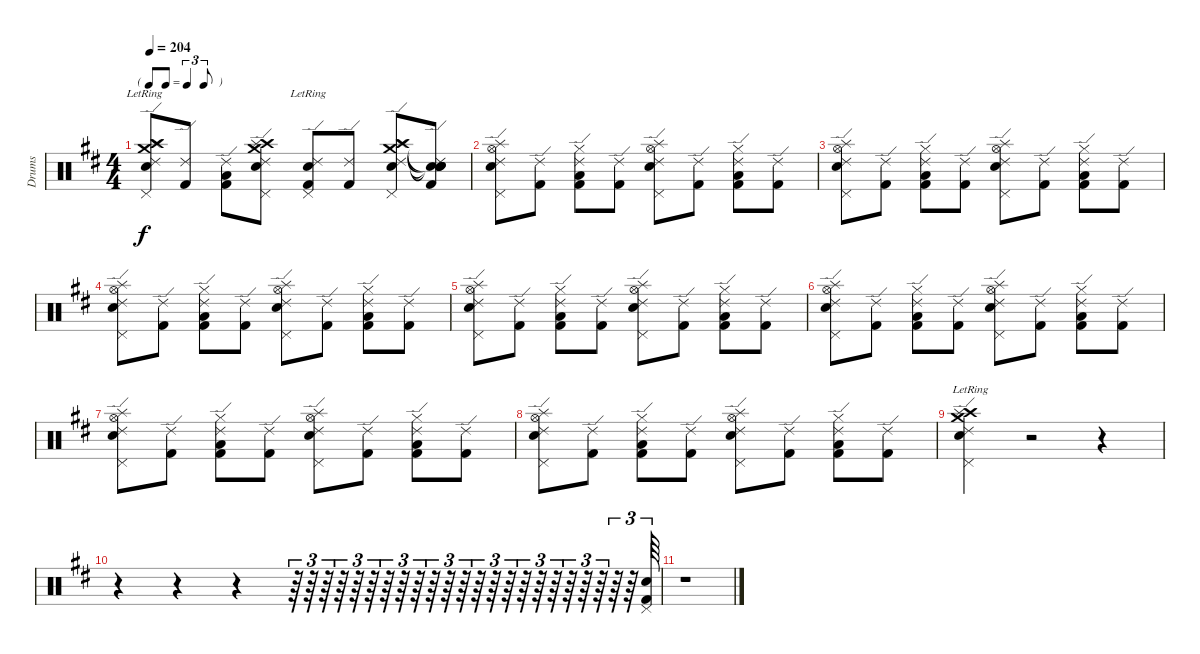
\track ("Drums" "Drums") {instrument percussion}
\staff {score}
\articulation defaults
\ts (4 4)
\tf triplet8th
\tempo 204
\clef neutral
\ks d
("Ride (edge) 2" "Crash medium (hit)" "Crash high (hit)"{lr} "Pedal Hi-Hat (hit)"{lr} "Splash (hit)"{lr} "Snare (hit) 2"{lr}).8{dy f} ("Kick (hit) 2" "Ride (edge) 2").8 ("Low Floor Tom (hit)" "Ride (edge) 2" "Kick (hit) 2").8 ("Ride (edge) 2" "Crash medium (hit)" "Crash high (hit)" "Pedal Hi-Hat (hit)" "Splash (hit)" "Snare (hit) 2").8 ("Kick (hit) 2"{lr} "Snare (hit) 2"{lr} "Ride (edge) 2"{lr} "Pedal Hi-Hat (hit)"{lr}).8 ("Kick (hit) 2" "Ride (edge) 2").8 ("Ride (edge) 2" "Crash medium (hit)" "Crash high (hit)" "Pedal Hi-Hat (hit)" "Splash (hit)" "Snare (hit) 2").8 ("Snare (hit)"{t} "Snare (hit)"{t} "Snare (hit)"{t} "Kick (hit) 2" "Ride (edge) 2" "Snare (hit)"{t}).8 |
("Hi-Hat (open)" "Splash (hit)" "Snare (hit) 2" "Ride (edge) 2" "Pedal Hi-Hat (hit)").8 ("Kick (hit) 2" "Ride (edge) 2").8 ("Hi-Hat (closed)" "Low Floor Tom (hit)" "Ride (edge) 2" "Kick (hit) 2").8 ("Kick (hit) 2" "Ride (edge) 2").8 ("Hi-Hat (open)" "Splash (hit)" "Snare (hit) 2" "Ride (edge) 2" "Pedal Hi-Hat (hit)").8 ("Kick (hit) 2" "Ride (edge) 2").8 ("Hi-Hat (closed)" "Low Floor Tom (hit)" "Ride (edge) 2" "Kick (hit) 2").8 ("Kick (hit) 2" "Ride (edge) 2").8 |
("Hi-Hat (open)" "Splash (hit)" "Snare (hit) 2" "Ride (edge) 2" "Pedal Hi-Hat (hit)").8 ("Kick (hit) 2" "Ride (edge) 2").8 ("Hi-Hat (closed)" "Low Floor Tom (hit)" "Ride (edge) 2" "Kick (hit) 2").8 ("Kick (hit) 2" "Ride (edge) 2").8 ("Hi-Hat (open)" "Splash (hit)" "Snare (hit) 2" "Ride (edge) 2" "Pedal Hi-Hat (hit)").8 ("Kick (hit) 2" "Ride (edge) 2").8 ("Hi-Hat (closed)" "Low Floor Tom (hit)" "Ride (edge) 2" "Kick (hit) 2").8 ("Kick (hit) 2" "Ride (edge) 2").8 |
("Hi-Hat (open)" "Splash (hit)" "Snare (hit) 2" "Ride (edge) 2" "Pedal Hi-Hat (hit)").8 ("Kick (hit) 2" "Ride (edge) 2").8 ("Hi-Hat (closed)" "Low Floor Tom (hit)" "Ride (edge) 2" "Kick (hit) 2").8 ("Kick (hit) 2" "Ride (edge) 2").8 ("Hi-Hat (open)" "Splash (hit)" "Snare (hit) 2" "Ride (edge) 2" "Pedal Hi-Hat (hit)").8 ("Kick (hit) 2" "Ride (edge) 2").8 ("Hi-Hat (closed)" "Low Floor Tom (hit)" "Ride (edge) 2" "Kick (hit) 2").8 ("Kick (hit) 2" "Ride (edge) 2").8 |
("Hi-Hat (open)" "Splash (hit)" "Snare (hit) 2" "Ride (edge) 2" "Pedal Hi-Hat (hit)").8 ("Kick (hit) 2" "Ride (edge) 2").8 ("Hi-Hat (closed)" "Low Floor Tom (hit)" "Ride (edge) 2" "Kick (hit) 2").8 ("Kick (hit) 2" "Ride (edge) 2").8 ("Hi-Hat (open)" "Splash (hit)" "Snare (hit) 2" "Ride (edge) 2" "Pedal Hi-Hat (hit)").8 ("Kick (hit) 2" "Ride (edge) 2").8 ("Hi-Hat (closed)" "Low Floor Tom (hit)" "Ride (edge) 2" "Kick (hit) 2").8 ("Kick (hit) 2" "Ride (edge) 2").8 |
("Hi-Hat (open)" "Splash (hit)" "Snare (hit) 2" "Ride (edge) 2" "Pedal Hi-Hat (hit)").8 ("Kick (hit) 2" "Ride (edge) 2").8 ("Hi-Hat (closed)" "Low Floor Tom (hit)" "Ride (edge) 2" "Kick (hit) 2").8 ("Kick (hit) 2" "Ride (edge) 2").8 ("Hi-Hat (open)" "Splash (hit)" "Snare (hit) 2" "Ride (edge) 2" "Pedal Hi-Hat (hit)").8 ("Kick (hit) 2" "Ride (edge) 2").8 ("Hi-Hat (closed)" "Low Floor Tom (hit)" "Ride (edge) 2" "Kick (hit) 2").8 ("Kick (hit) 2" "Ride (edge) 2").8 |
("Hi-Hat (open)" "Splash (hit)" "Snare (hit) 2" "Ride (edge) 2" "Pedal Hi-Hat (hit)").8 ("Kick (hit) 2" "Ride (edge) 2").8 ("Hi-Hat (closed)" "Low Floor Tom (hit)" "Ride (edge) 2" "Kick (hit) 2").8 ("Kick (hit) 2" "Ride (edge) 2").8 ("Hi-Hat (open)" "Splash (hit)" "Snare (hit) 2" "Ride (edge) 2" "Pedal Hi-Hat (hit)").8 ("Kick (hit) 2" "Ride (edge) 2").8 ("Hi-Hat (closed)" "Low Floor Tom (hit)" "Ride (edge) 2" "Kick (hit) 2").8 ("Kick (hit) 2" "Ride (edge) 2").8 |
("Hi-Hat (open)" "Splash (hit)" "Snare (hit) 2" "Ride (edge) 2" "Pedal Hi-Hat (hit)").8 ("Kick (hit) 2" "Ride (edge) 2").8 ("Hi-Hat (closed)" "Low Floor Tom (hit)" "Ride (edge) 2" "Kick (hit) 2").8 ("Kick (hit) 2" "Ride (edge) 2").8 ("Hi-Hat (open)" "Splash (hit)" "Snare (hit) 2" "Ride (edge) 2" "Pedal Hi-Hat (hit)").8 ("Kick (hit) 2" "Ride (edge) 2").8 ("Hi-Hat (closed)" "Low Floor Tom (hit)" "Ride (edge) 2" "Kick (hit) 2").8 ("Kick (hit) 2" "Ride (edge) 2").8 |
("Ride (edge) 2"{lr} "Crash medium (hit)"{lr} "Crash high (hit)"{lr} "Pedal Hi-Hat (hit)"{lr} "Splash (hit)"{lr} "Snare (hit) 2"{lr}).4 r.2 r.4 |
r.4 r.4 r.4 r.64{tu (3 2)} r.64{tu (3 2)} r.64{tu (3 2)} r.64{tu (3 2)} r.64{tu (3 2)} r.64{tu (3 2)} r.64{tu (3 2)} r.64{tu (3 2)} r.64{tu (3 2)} r.64{tu (3 2)} r.64{tu (3 2)} r.64{tu (3 2)} r.64{tu (3 2)} r.64{tu (3 2)} r.64{tu (3 2)} r.64{tu (3 2)} r.64{tu (3 2)} r.64{tu (3 2)} r.64{tu (3 2)} r.64{tu (3 2)} r.64{tu (3 2)} r.64{tu (3 2)} r.64{tu (3 2)} ("Pedal Hi-Hat (hit)" "Kick (hit) 2" "Snare (hit) 2").64{tu (3 2)} |
r.1
